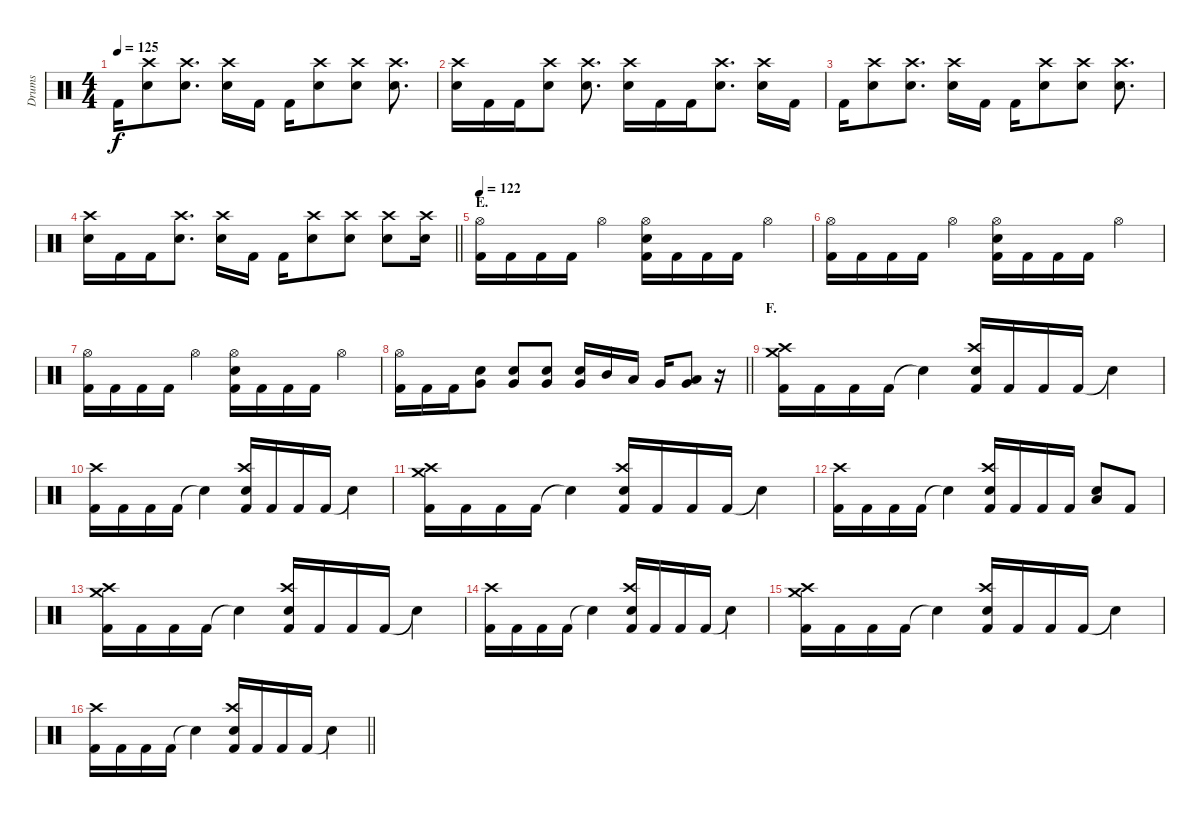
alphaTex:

\track ("Drums" "Drums") {instrument percussion}
\staff {score}
\articulation defaults
\ts (4 4)
\tempo 125
\clef neutral
\ks c "Kick (hit) 2".16{dy f}
("Crash high (hit)" "Electric Snare (hit)").8 ("Crash high (hit)" "Electric Snare (hit)").8{d} ("Crash high (hit)" "Electric Snare (hit)").16 "Kick (hit) 2".16 "Kick (hit) 2".16 ("Crash high (hit)" "Electric Snare (hit)").8 ("Crash high (hit)" "Electric Snare (hit)").8 ("Crash high (hit)" "Electric Snare (hit)").8{d} |
("Crash high (hit)" "Electric Snare (hit)").16 "Kick (hit) 2".16 "Kick (hit) 2".16 ("Crash high (hit)" "Electric Snare (hit)").8 ("Crash high (hit)" "Electric Snare (hit)").8{d} ("Crash high (hit)" "Electric Snare (hit)").16 "Kick (hit) 2".16 "Kick (hit) 2".16 ("Crash high (hit)" "Electric Snare (hit)").8{d} ("Crash high (hit)" "Electric Snare (hit)").16 "Kick (hit) 2".16 |
"Kick (hit) 2".16 ("Crash high (hit)" "Electric Snare (hit)").8 ("Crash high (hit)" "Electric Snare (hit)").8{d} ("Crash high (hit)" "Electric Snare (hit)").16 "Kick (hit) 2".16 "Kick (hit) 2".16 ("Crash high (hit)" "Electric Snare (hit)").8 ("Crash high (hit)" "Electric Snare (hit)").8 ("Crash high (hit)" "Electric Snare (hit)").8{d} |
\barLineRight lightlight
("Crash high (hit)" "Electric Snare (hit)").16 "Kick (hit) 2".16 "Kick (hit) 2".16 ("Crash high (hit)" "Electric Snare (hit)").8{d} ("Crash high (hit)" "Electric Snare (hit)").16 "Kick (hit) 2".16 "Kick (hit) 2".16 ("Crash high (hit)" "Electric Snare (hit)").8 ("Crash high (hit)" "Electric Snare (hit)").8 ("Crash high (hit)" "Electric Snare (hit)").8 ("Crash high (hit)" "Electric Snare (hit)").16 |
\section ("" "E.")
\tempo 122
("Hi-Hat (open)" "Kick (hit) 2").16 "Kick (hit) 2".16 "Kick (hit) 2".16 "Kick (hit) 2".16 "Hi-Hat (open)".4 ("Hi-Hat (open)" "Electric Snare (hit)" "Kick (hit) 2").16 "Kick (hit) 2".16 "Kick (hit) 2".16 "Kick (hit) 2".16 "Hi-Hat (open)".4 |
("Hi-Hat (open)" "Kick (hit) 2").16 "Kick (hit) 2".16 "Kick (hit) 2".16 "Kick (hit) 2".16 "Hi-Hat (open)".4 ("Hi-Hat (open)" "Electric Snare (hit)" "Kick (hit) 2").16 "Kick (hit) 2".16 "Kick (hit) 2".16 "Kick (hit) 2".16 "Hi-Hat (open)".4 |
("Hi-Hat (open)" "Kick (hit) 2").16 "Kick (hit) 2".16 "Kick (hit) 2".16 "Kick (hit) 2".16 "Hi-Hat (open)".4 ("Hi-Hat (open)" "Electric Snare (hit)" "Kick (hit) 2").16 "Kick (hit) 2".16 "Kick (hit) 2".16 "Kick (hit) 2".16 "Hi-Hat (open)".4 |
\barLineRight lightlight
("Hi-Hat (open)" "Kick (hit) 2").16 "Kick (hit) 2".16 "Kick (hit) 2".16 ("Very Low Tom (hit)" "Electric Snare (hit)").8{bu 120} ("Very Low Tom (hit)" "Electric Snare (hit)").8{bu 120} ("Very Low Tom (hit)" "Electric Snare (hit)").8{bu 120} ("Very Low Tom (hit)" "Electric Snare (hit)").16{bu 120} "Mid Tom (hit)".16 "Low Tom (hit)".16 "Very Low Tom (hit)".16 ("Very Low Tom (hit)" "Low Floor Tom (hit)").8{bu 120} r.16 |
\section ("" "F.")
("Crash medium (hit)" "Crash high (hit)" "Kick (hit) 2").16 "Kick (hit) 2".16 "Kick (hit) 2".16 "Kick (hit) 2".16 "Snare (hit)"{t}.4 ("Crash high (hit)" "Electric Snare (hit)" "Kick (hit) 2").16 "Kick (hit) 2".16 "Kick (hit) 2".16 "Kick (hit) 2".16 "Snare (hit)"{t}.4 |
("Crash high (hit)" "Kick (hit) 2").16 "Kick (hit) 2".16 "Kick (hit) 2".16 "Kick (hit) 2".16 "Snare (hit)"{t}.4 ("Crash high (hit)" "Electric Snare (hit)" "Kick (hit) 2").16 "Kick (hit) 2".16 "Kick (hit) 2".16 "Kick (hit) 2".16 "Snare (hit)"{t}.4 |
("Crash medium (hit)" "Crash high (hit)" "Kick (hit) 2").16 "Kick (hit) 2".16 "Kick (hit) 2".16 "Kick (hit) 2".16 "Snare (hit)"{t}.4 ("Crash high (hit)" "Electric Snare (hit)" "Kick (hit) 2").16 "Kick (hit) 2".16 "Kick (hit) 2".16 "Kick (hit) 2".16 "Snare (hit)"{t}.4 |
("Crash high (hit)" "Kick (hit) 2").16 "Kick (hit) 2".16 "Kick (hit) 2".16 "Kick (hit) 2".16 "Snare (hit)"{t}.4 ("Crash high (hit)" "Electric Snare (hit)" "Kick (hit) 2").16 "Kick (hit) 2".16 "Kick (hit) 2".16 "Kick (hit) 2".16 ("Low Tom (hit)" "Electric Snare (hit)").8{bu 120} "Kick (hit) 2".8 |
("Crash medium (hit)" "Crash high (hit)" "Kick (hit) 2").16 "Kick (hit) 2".16 "Kick (hit) 2".16 "Kick (hit) 2".16 "Snare (hit)"{t}.4 ("Crash high (hit)" "Electric Snare (hit)" "Kick (hit) 2").16 "Kick (hit) 2".16 "Kick (hit) 2".16 "Kick (hit) 2".16 "Snare (hit)"{t}.4 |
("Crash high (hit)" "Kick (hit) 2").16 "Kick (hit) 2".16 "Kick (hit) 2".16 "Kick (hit) 2".16 "Snare (hit)"{t}.4 ("Crash high (hit)" "Electric Snare (hit)" "Kick (hit) 2").16 "Kick (hit) 2".16 "Kick (hit) 2".16 "Kick (hit) 2".16 "Snare (hit)"{t}.4 |
("Crash medium (hit)" "Crash high (hit)" "Kick (hit) 2").16 "Kick (hit) 2".16 "Kick (hit) 2".16 "Kick (hit) 2".16 "Snare (hit)"{t}.4 ("Crash high (hit)" "Electric Snare (hit)" "Kick (hit) 2").16 "Kick (hit) 2".16 "Kick (hit) 2".16 "Kick (hit) 2".16 "Snare (hit)"{t}.4 |
\barLineRight lightlight
("Crash high (hit)" "Kick (hit) 2").16 "Kick (hit) 2".16 "Kick (hit) 2".16 "Kick (hit) 2".16 "Snare (hit)"{t}.4 ("Crash high (hit)" "Electric Snare (hit)" "Kick (hit) 2").16 "Kick (hit) 2".16 "Kick (hit) 2".16 "Kick (hit) 2".16 "Snare (hit)"{t}.4
